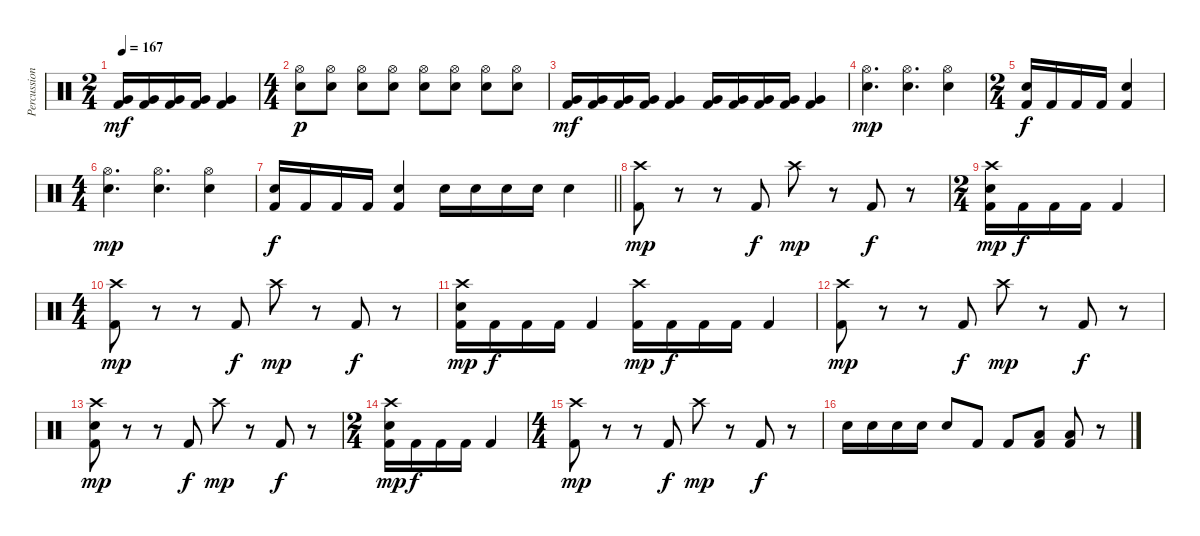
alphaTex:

\track ("Percussion" "Percussion") {instrument percussion}
\staff {score}
\articulation defaults
\ts (2 4)
\tempo 167
\clef neutral
\ks c
("Very Low Tom (hit)" "Kick (hit) 2").16{dy mf} ("Very Low Tom (hit)" "Kick (hit) 2").16 ("Very Low Tom (hit)" "Kick (hit) 2").16 ("Very Low Tom (hit)" "Kick (hit) 2").16 ("Very Low Tom (hit)" "Kick (hit) 2").4 |
\ts (4 4)
("Hi-Hat (open)" "Snare (hit) 2").8{dy p} ("Hi-Hat (open)" "Snare (hit) 2").8 ("Hi-Hat (open)" "Snare (hit) 2").8 ("Hi-Hat (open)" "Snare (hit) 2").8 ("Hi-Hat (open)" "Snare (hit) 2").8 ("Hi-Hat (open)" "Snare (hit) 2").8 ("Hi-Hat (open)" "Snare (hit) 2").8 ("Hi-Hat (open)" "Snare (hit) 2").8 |
("Very Low Tom (hit)" "Kick (hit) 2").16{dy mf} ("Very Low Tom (hit)" "Kick (hit) 2").16 ("Very Low Tom (hit)" "Kick (hit) 2").16 ("Very Low Tom (hit)" "Kick (hit) 2").16 ("Very Low Tom (hit)" "Kick (hit) 2").4 ("Very Low Tom (hit)" "Kick (hit) 2").16 ("Very Low Tom (hit)" "Kick (hit) 2").16 ("Very Low Tom (hit)" "Kick (hit) 2").16 ("Very Low Tom (hit)" "Kick (hit) 2").16 ("Very Low Tom (hit)" "Kick (hit) 2").4 |
("Hi-Hat (open)" "Snare (hit) 2").4{d dy mp} ("Hi-Hat (open)" "Snare (hit) 2").4{d} ("Hi-Hat (open)" "Snare (hit) 2").4 |
\ts (2 4)
("Snare (hit) 2" "Kick (hit) 2").16{dy f} "Kick (hit) 2".16 "Kick (hit) 2".16 "Kick (hit) 2".16 ("Snare (hit) 2" "Kick (hit) 2").4 |
\ts (4 4)
("Hi-Hat (open)" "Snare (hit) 2").4{d dy mp} ("Hi-Hat (open)" "Snare (hit) 2").4{d} ("Hi-Hat (open)" "Snare (hit) 2").4 |
\barLineRight lightlight
("Snare (hit) 2" "Kick (hit) 2").16{dy f} "Kick (hit) 2".16 "Kick (hit) 2".16 "Kick (hit) 2".16 ("Snare (hit) 2" "Kick (hit) 2").4 "Snare (hit) 2".16 "Snare (hit) 2".16 "Snare (hit) 2".16 "Snare (hit) 2".16 "Snare (hit) 2".4 |
("Crash high (hit)" "Kick (hit) 2").8{dy mp} r.8 r.8 "Kick (hit) 2".8{dy f} "Crash high (hit)".8{dy mp} r.8 "Kick (hit) 2".8{dy f} r.8 |
\ts (2 4)
("Crash high (hit)" "Snare (hit) 2" "Kick (hit) 2").16{dy mp} "Kick (hit) 2".16{dy f} "Kick (hit) 2".16 "Kick (hit) 2".16 "Kick (hit) 2".4 |
\ts (4 4)
("Crash high (hit)" "Kick (hit) 2").8{dy mp} r.8 r.8 "Kick (hit) 2".8{dy f} "Crash high (hit)".8{dy mp} r.8 "Kick (hit) 2".8{dy f} r.8 |
("Crash high (hit)" "Snare (hit) 2" "Kick (hit) 2").16{dy mp} "Kick (hit) 2".16{dy f} "Kick (hit) 2".16 "Kick (hit) 2".16 "Kick (hit) 2".4 ("Crash high (hit)" "Kick (hit) 2").16{dy mp} "Kick (hit) 2".16{dy f} "Kick (hit) 2".16 "Kick (hit) 2".16 "Kick (hit) 2".4 |
("Crash high (hit)" "Kick (hit) 2").8{dy mp} r.8 r.8 "Kick (hit) 2".8{dy f} "Crash high (hit)".8{dy mp} r.8 "Kick (hit) 2".8{dy f} r.8 |
("Crash high (hit)" "Snare (hit) 2" "Kick (hit) 2").8{dy mp} r.8 r.8 "Kick (hit) 2".8{dy f} "Crash high (hit)".8{dy mp} r.8 "Kick (hit) 2".8{dy f} r.8 |
\ts (2 4)
("Crash high (hit)" "Snare (hit) 2" "Kick (hit) 2").16{dy mp} "Kick (hit) 2".16{dy f} "Kick (hit) 2".16 "Kick (hit) 2".16 "Kick (hit) 2".4 |
\ts (4 4)
("Crash high (hit)" "Kick (hit) 2").8{dy mp} r.8 r.8 "Kick (hit) 2".8{dy f} "Crash high (hit)".8{dy mp} r.8 "Kick (hit) 2".8{dy f} r.8 |
"Snare (hit) 2".16 "Snare (hit) 2".16 "Snare (hit) 2".16 "Snare (hit) 2".16 "Snare (hit) 2".8 "Kick (hit) 2".8 "Kick (hit) 2".8 ("Low Tom (hit)" "Kick (hit) 2").8 ("Low Tom (hit)" "Kick (hit) 2").8 r.8
